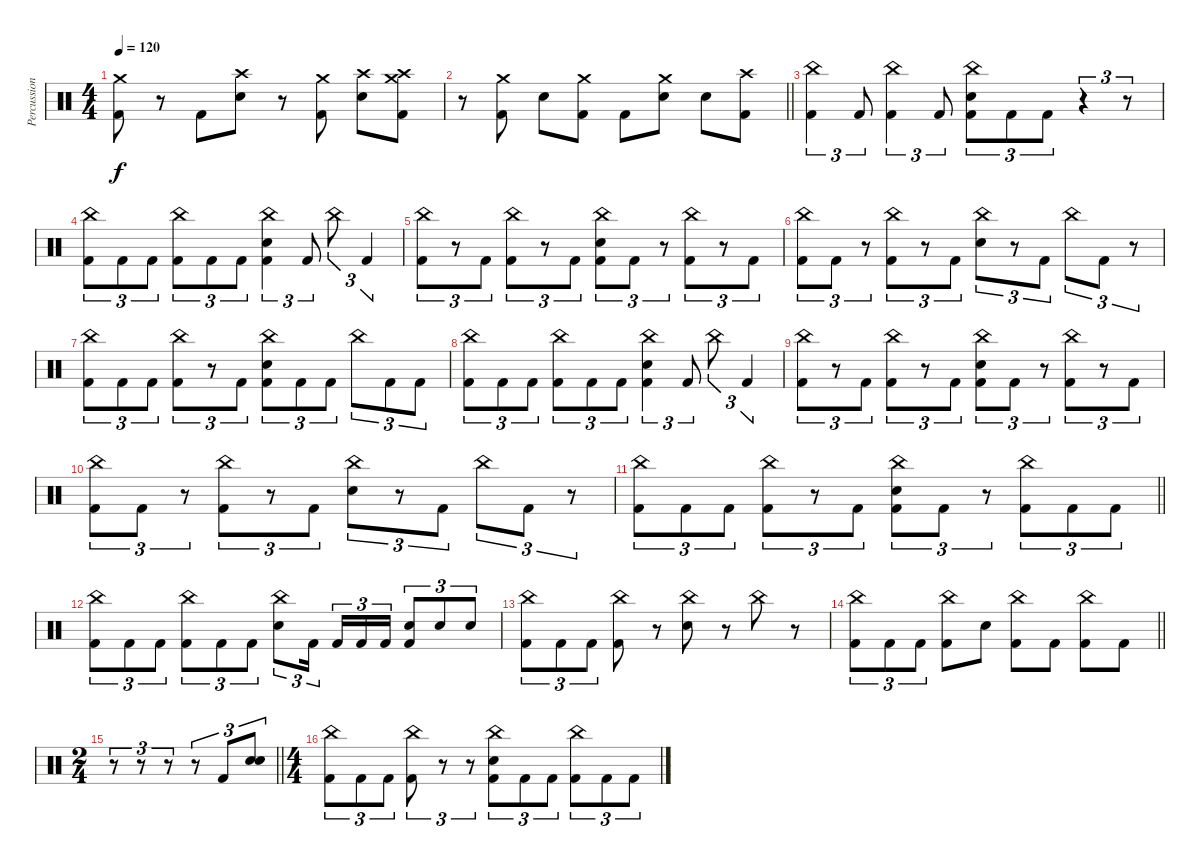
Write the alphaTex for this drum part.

\track ("Percussion" "Percussion") {instrument percussion}
\staff {score}
\articulation defaults
\ts (4 4)
\tempo 120
\clef neutral
\ks c
("Crash medium (hit)" "Kick (hit) 2").8{dy f} r.8 "Kick (hit) 2".8 ("Crash high (hit)" "Electric Snare (hit)").8 r.8 ("Crash medium (hit)" "Kick (hit) 2").8 ("Crash high (hit)" "Electric Snare (hit)").8 ("Crash medium (hit)" "Crash high (hit)" "Kick (hit) 2").8 |
\barLineRight lightlight
r.8 ("Crash medium (hit)" "Kick (hit) 2").8 "Electric Snare (hit)".8 ("Crash medium (hit)" "Kick (hit) 2").8 "Kick (hit) 2".8 ("Crash medium (hit)" "Electric Snare (hit)").8 "Electric Snare (hit)".8 ("Crash high (hit)" "Kick (hit) 2").8 |
\section ("" "")
("China (hit)" "Kick (hit) 2").4{tu (3 2)} "Kick (hit) 2".8{tu (3 2)} ("China (hit)" "Kick (hit) 2").4{tu (3 2)} "Kick (hit) 2".8{tu (3 2)} ("China (hit)" "Electric Snare (hit)" "Kick (hit) 2").8{tu (3 2)} "Kick (hit) 2".8{tu (3 2)} "Kick (hit) 2".8{tu (3 2)} r.4{tu (3 2)} r.8{tu (3 2)} |
("China (hit)" "Kick (hit) 2").8{tu (3 2)} "Kick (hit) 2".8{tu (3 2)} "Kick (hit) 2".8{tu (3 2)} ("China (hit)" "Kick (hit) 2").8{tu (3 2)} "Kick (hit) 2".8{tu (3 2)} "Kick (hit) 2".8{tu (3 2)} ("China (hit)" "Electric Snare (hit)" "Kick (hit) 2").4{tu (3 2)} "Kick (hit) 2".8{tu (3 2)} "China (hit)".8{tu (3 2)} "Kick (hit) 2".4{tu (3 2)} |
("China (hit)" "Kick (hit) 2").8{tu (3 2)} r.8{tu (3 2)} "Kick (hit) 2".8{tu (3 2)} ("China (hit)" "Kick (hit) 2").8{tu (3 2)} r.8{tu (3 2)} "Kick (hit) 2".8{tu (3 2)} ("China (hit)" "Electric Snare (hit)" "Kick (hit) 2").8{tu (3 2)} "Kick (hit) 2".8{tu (3 2)} r.8{tu (3 2)} ("China (hit)" "Kick (hit) 2").8{tu (3 2)} r.8{tu (3 2)} "Kick (hit) 2".8{tu (3 2)} |
("China (hit)" "Kick (hit) 2").8{tu (3 2)} "Kick (hit) 2".8{tu (3 2)} r.8{tu (3 2)} ("China (hit)" "Kick (hit) 2").8{tu (3 2)} r.8{tu (3 2)} "Kick (hit) 2".8{tu (3 2)} ("China (hit)" "Electric Snare (hit)").8{tu (3 2)} r.8{tu (3 2)} "Kick (hit) 2".8{tu (3 2)} "China (hit)".8{tu (3 2)} "Kick (hit) 2".8{tu (3 2)} r.8{tu (3 2)} |
("China (hit)" "Kick (hit) 2").8{tu (3 2)} "Kick (hit) 2".8{tu (3 2)} "Kick (hit) 2".8{tu (3 2)} ("China (hit)" "Kick (hit) 2").8{tu (3 2)} r.8{tu (3 2)} "Kick (hit) 2".8{tu (3 2)} ("China (hit)" "Electric Snare (hit)" "Kick (hit) 2").8{tu (3 2)} "Kick (hit) 2".8{tu (3 2)} "Kick (hit) 2".8{tu (3 2)} "China (hit)".8{tu (3 2)} "Kick (hit) 2".8{tu (3 2)} "Kick (hit) 2".8{tu (3 2)} |
("China (hit)" "Kick (hit) 2").8{tu (3 2)} "Kick (hit) 2".8{tu (3 2)} "Kick (hit) 2".8{tu (3 2)} ("China (hit)" "Kick (hit) 2").8{tu (3 2)} "Kick (hit) 2".8{tu (3 2)} "Kick (hit) 2".8{tu (3 2)} ("China (hit)" "Electric Snare (hit)" "Kick (hit) 2").4{tu (3 2)} "Kick (hit) 2".8{tu (3 2)} "China (hit)".8{tu (3 2)} "Kick (hit) 2".4{tu (3 2)} |
("China (hit)" "Kick (hit) 2").8{tu (3 2)} r.8{tu (3 2)} "Kick (hit) 2".8{tu (3 2)} ("China (hit)" "Kick (hit) 2").8{tu (3 2)} r.8{tu (3 2)} "Kick (hit) 2".8{tu (3 2)} ("China (hit)" "Electric Snare (hit)" "Kick (hit) 2").8{tu (3 2)} "Kick (hit) 2".8{tu (3 2)} r.8{tu (3 2)} ("China (hit)" "Kick (hit) 2").8{tu (3 2)} r.8{tu (3 2)} "Kick (hit) 2".8{tu (3 2)} |
("China (hit)" "Kick (hit) 2").8{tu (3 2)} "Kick (hit) 2".8{tu (3 2)} r.8{tu (3 2)} ("China (hit)" "Kick (hit) 2").8{tu (3 2)} r.8{tu (3 2)} "Kick (hit) 2".8{tu (3 2)} ("China (hit)" "Electric Snare (hit)").8{tu (3 2)} r.8{tu (3 2)} "Kick (hit) 2".8{tu (3 2)} "China (hit)".8{tu (3 2)} "Kick (hit) 2".8{tu (3 2)} r.8{tu (3 2)} |
\barLineRight lightlight
("China (hit)" "Kick (hit) 2").8{tu (3 2)} "Kick (hit) 2".8{tu (3 2)} "Kick (hit) 2".8{tu (3 2)} ("China (hit)" "Kick (hit) 2").8{tu (3 2)} r.8{tu (3 2)} "Kick (hit) 2".8{tu (3 2)} ("China (hit)" "Electric Snare (hit)" "Kick (hit) 2").8{tu (3 2)} "Kick (hit) 2".8{tu (3 2)} r.8{tu (3 2)} ("China (hit)" "Kick (hit) 2").8{tu (3 2)} "Kick (hit) 2".8{tu (3 2)} "Kick (hit) 2".8{tu (3 2)} |
\section ("" "")
("China (hit)" "Kick (hit) 2").8{tu (3 2)} "Kick (hit) 2".8{tu (3 2)} "Kick (hit) 2".8{tu (3 2)} ("China (hit)" "Kick (hit) 2").8{tu (3 2)} "Kick (hit) 2".8{tu (3 2)} "Kick (hit) 2".8{tu (3 2)} ("China (hit)" "Electric Snare (hit)").8{tu (3 2)} "Kick (hit) 2".16{tu (3 2) beam splitsecondary} "Kick (hit) 2".16{tu (3 2)} "Kick (hit) 2".16{tu (3 2)} "Kick (hit) 2".16{tu (3 2)} ("Electric Snare (hit)" "Kick (hit) 2").8{tu (3 2)} "Electric Snare (hit)".8{tu (3 2)} "Electric Snare (hit)".8{tu (3 2)} |
("China (hit)" "Kick (hit) 2").8{tu (3 2)} "Kick (hit) 2".8{tu (3 2)} "Kick (hit) 2".8{tu (3 2)} ("China (hit)" "Kick (hit) 2").8 r.8 ("China (hit)" "Electric Snare (hit)").8 r.8 "China (hit)".8 r.8 |
\barLineRight lightlight
("China (hit)" "Kick (hit) 2").8{tu (3 2)} "Kick (hit) 2".8{tu (3 2)} "Kick (hit) 2".8{tu (3 2)} ("China (hit)" "Kick (hit) 2").8 "Electric Snare (hit)".8 ("China (hit)" "Kick (hit) 2").8 "Kick (hit) 2".8 ("China (hit)" "Kick (hit) 2").8 "Kick (hit) 2".8 |
\ts (2 4)
\barLineRight lightlight
r.8{tu (3 2)} r.8{tu (3 2)} r.8{tu (3 2)} r.8{tu (3 2)} "Kick (hit) 2".8{tu (3 2)} ("Electric Snare (hit)" "Electric Snare (hit)").8{tu (3 2) bu 60} |
\ts (4 4)
\section ("" "")
("China (hit)" "Kick (hit) 2").8{tu (3 2)} "Kick (hit) 2".8{tu (3 2)} "Kick (hit) 2".8{tu (3 2)} ("China (hit)" "Kick (hit) 2").8{tu (3 2)} r.8{tu (3 2)} r.8{tu (3 2)} ("China (hit)" "Electric Snare (hit)" "Kick (hit) 2").8{tu (3 2)} "Kick (hit) 2".8{tu (3 2)} "Kick (hit) 2".8{tu (3 2)} ("China (hit)" "Kick (hit) 2").8{tu (3 2)} "Kick (hit) 2".8{tu (3 2)} "Kick (hit) 2".8{tu (3 2)}
